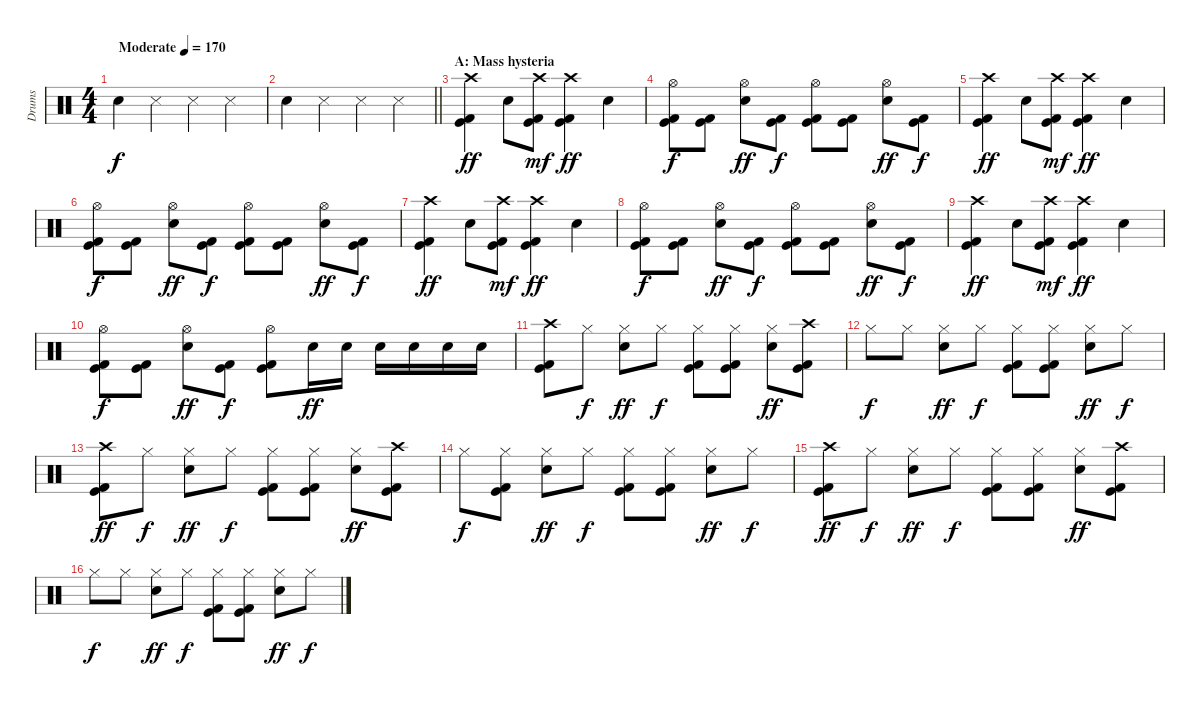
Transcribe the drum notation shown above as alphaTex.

\track ("Drums" "Drums") {instrument percussion}
\staff {score}
\articulation defaults
\ts (4 4)
\tempo (170 "Moderate")
\clef neutral
\ks c "Metronome (bell)".4{dy f} "Metronome (hit)".4 "Metronome (hit)".4 "Metronome (hit)".4
|
\barLineRight lightlight "Metronome (bell)".4 "Metronome (hit)".4 "Metronome (hit)".4 "Metronome (hit)".4
|
\section ("" "A: Mass hysteria")
("Crash high (hit)" "Kick (hit)" "Kick (hit) 2").4{dy ff} "Snare (hit) 2".8 ("Crash high (hit)" "Kick (hit)" "Kick (hit) 2").8{dy mf} ("Crash high (hit)" "Kick (hit)" "Kick (hit) 2").4{dy ff} "Snare (hit) 2".4 |
("Hi-Hat (open)" "Kick (hit)" "Kick (hit) 2").8{dy f} ("Kick (hit)" "Kick (hit) 2").8 ("Hi-Hat (open)" "Snare (hit) 2").8{dy ff} ("Kick (hit)" "Kick (hit) 2").8{dy f} ("Hi-Hat (open)" "Kick (hit)" "Kick (hit) 2").8 ("Kick (hit)" "Kick (hit) 2").8 ("Hi-Hat (open)" "Snare (hit) 2").8{dy ff} ("Kick (hit)" "Kick (hit) 2").8{dy f} |
("Crash high (hit)" "Kick (hit)" "Kick (hit) 2").4{dy ff} "Snare (hit) 2".8 ("Crash high (hit)" "Kick (hit)" "Kick (hit) 2").8{dy mf} ("Crash high (hit)" "Kick (hit)" "Kick (hit) 2").4{dy ff} "Snare (hit) 2".4 |
("Hi-Hat (open)" "Kick (hit)" "Kick (hit) 2").8{dy f} ("Kick (hit)" "Kick (hit) 2").8 ("Hi-Hat (open)" "Snare (hit) 2").8{dy ff} ("Kick (hit)" "Kick (hit) 2").8{dy f} ("Hi-Hat (open)" "Kick (hit)" "Kick (hit) 2").8 ("Kick (hit)" "Kick (hit) 2").8 ("Hi-Hat (open)" "Snare (hit) 2").8{dy ff} ("Kick (hit)" "Kick (hit) 2").8{dy f} |
("Crash high (hit)" "Kick (hit)" "Kick (hit) 2").4{dy ff} "Snare (hit) 2".8 ("Crash high (hit)" "Kick (hit)" "Kick (hit) 2").8{dy mf} ("Crash high (hit)" "Kick (hit)" "Kick (hit) 2").4{dy ff} "Snare (hit) 2".4 |
("Hi-Hat (open)" "Kick (hit)" "Kick (hit) 2").8{dy f} ("Kick (hit)" "Kick (hit) 2").8 ("Hi-Hat (open)" "Snare (hit) 2").8{dy ff} ("Kick (hit)" "Kick (hit) 2").8{dy f} ("Hi-Hat (open)" "Kick (hit)" "Kick (hit) 2").8 ("Kick (hit)" "Kick (hit) 2").8 ("Hi-Hat (open)" "Snare (hit) 2").8{dy ff} ("Kick (hit)" "Kick (hit) 2").8{dy f} |
("Crash high (hit)" "Kick (hit)" "Kick (hit) 2").4{dy ff} "Snare (hit) 2".8 ("Crash high (hit)" "Kick (hit)" "Kick (hit) 2").8{dy mf} ("Crash high (hit)" "Kick (hit)" "Kick (hit) 2").4{dy ff} "Snare (hit) 2".4 |
("Hi-Hat (open)" "Kick (hit)" "Kick (hit) 2").8{dy f} ("Kick (hit)" "Kick (hit) 2").8 ("Hi-Hat (open)" "Snare (hit) 2").8{dy ff} ("Kick (hit)" "Kick (hit) 2").8{dy f} ("Hi-Hat (open)" "Kick (hit)" "Kick (hit) 2").8 "Snare (hit) 2".16{dy ff} "Snare (hit) 2".16 "Snare (hit) 2".16 "Snare (hit) 2".16 "Snare (hit) 2".16 "Snare (hit) 2".16 |
("Crash high (hit)" "Kick (hit)" "Kick (hit) 2").8 "Hi-Hat (closed)".8{dy f} ("Hi-Hat (closed)" "Snare (hit) 2").8{dy ff} "Hi-Hat (closed)".8{dy f} ("Hi-Hat (closed)" "Kick (hit)" "Kick (hit) 2").8 ("Hi-Hat (closed)" "Kick (hit)" "Kick (hit) 2").8 ("Hi-Hat (closed)" "Snare (hit) 2").8{dy ff} ("Crash high (hit)" "Kick (hit)" "Kick (hit) 2").8 |
"Hi-Hat (closed)".8{dy f} "Hi-Hat (closed)".8 ("Hi-Hat (closed)" "Snare (hit) 2").8{dy ff} "Hi-Hat (closed)".8{dy f} ("Hi-Hat (closed)" "Kick (hit)" "Kick (hit) 2").8 ("Hi-Hat (closed)" "Kick (hit)" "Kick (hit) 2").8 ("Hi-Hat (closed)" "Snare (hit) 2").8{dy ff} "Hi-Hat (closed)".8{dy f} |
("Crash high (hit)" "Kick (hit)" "Kick (hit) 2").8{dy ff} "Hi-Hat (closed)".8{dy f} ("Hi-Hat (closed)" "Snare (hit) 2").8{dy ff} "Hi-Hat (closed)".8{dy f} ("Hi-Hat (closed)" "Kick (hit)" "Kick (hit) 2").8 ("Hi-Hat (closed)" "Kick (hit)" "Kick (hit) 2").8 ("Hi-Hat (closed)" "Snare (hit) 2").8{dy ff} ("Crash high (hit)" "Kick (hit)" "Kick (hit) 2").8 |
"Hi-Hat (closed)".8{dy f} ("Hi-Hat (closed)" "Kick (hit)" "Kick (hit) 2").8 ("Hi-Hat (closed)" "Snare (hit) 2").8{dy ff} "Hi-Hat (closed)".8{dy f} ("Hi-Hat (closed)" "Kick (hit)" "Kick (hit) 2").8 ("Hi-Hat (closed)" "Kick (hit)" "Kick (hit) 2").8 ("Hi-Hat (closed)" "Snare (hit) 2").8{dy ff} "Hi-Hat (closed)".8{dy f} |
("Crash high (hit)" "Kick (hit)" "Kick (hit) 2").8{dy ff} "Hi-Hat (closed)".8{dy f} ("Hi-Hat (closed)" "Snare (hit) 2").8{dy ff} "Hi-Hat (closed)".8{dy f} ("Hi-Hat (closed)" "Kick (hit)" "Kick (hit) 2").8 ("Hi-Hat (closed)" "Kick (hit)" "Kick (hit) 2").8 ("Hi-Hat (closed)" "Snare (hit) 2").8{dy ff} ("Crash high (hit)" "Kick (hit)" "Kick (hit) 2").8 |
"Hi-Hat (closed)".8{dy f} "Hi-Hat (closed)".8 ("Hi-Hat (closed)" "Snare (hit) 2").8{dy ff} "Hi-Hat (closed)".8{dy f} ("Hi-Hat (closed)" "Kick (hit)" "Kick (hit) 2").8 ("Hi-Hat (closed)" "Kick (hit)" "Kick (hit) 2").8 ("Hi-Hat (closed)" "Snare (hit) 2").8{dy ff} "Hi-Hat (closed)".8{dy f}
